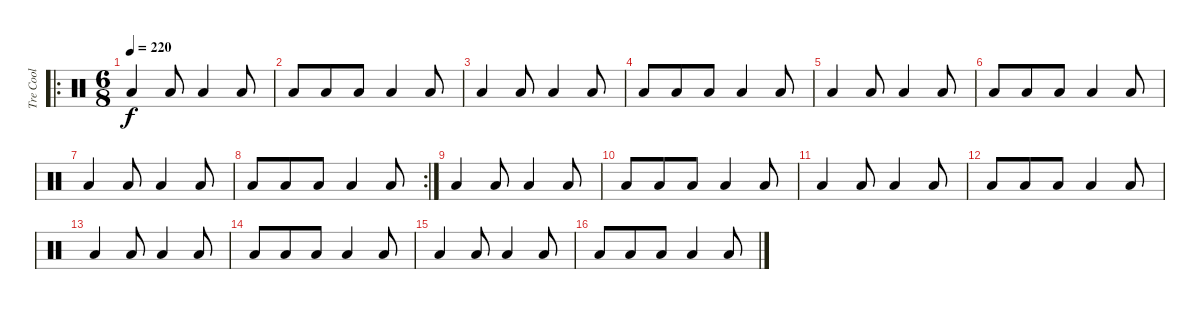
\track ("Tre Cool" "Tre Cool") {instrument percussion}
\staff {score}
\articulation defaults
\ro
\ts (6 8)
\tempo 220
\clef neutral
\ks c "Low Floor Tom (hit)".4{dy f} "Low Floor Tom (hit)".8 "Low Tom (hit)".4 "Low Tom (hit)".8
|
"Low Floor Tom (hit)".8 "Low Floor Tom (hit)".8 "Low Floor Tom (hit)".8 "Low Tom (hit)".4 "Low Tom (hit)".8 |
"Low Floor Tom (hit)".4 "Low Floor Tom (hit)".8 "Low Tom (hit)".4 "Low Tom (hit)".8 |
"Low Floor Tom (hit)".8 "Low Floor Tom (hit)".8 "Low Floor Tom (hit)".8 "Low Tom (hit)".4 "Low Tom (hit)".8 |
"Low Floor Tom (hit)".4 "Low Floor Tom (hit)".8 "Low Tom (hit)".4 "Low Tom (hit)".8 |
"Low Floor Tom (hit)".8 "Low Floor Tom (hit)".8 "Low Floor Tom (hit)".8 "Low Tom (hit)".4 "Low Tom (hit)".8 |
"Low Floor Tom (hit)".4 "Low Floor Tom (hit)".8 "Low Tom (hit)".4 "Low Tom (hit)".8 |
\rc 2 "Low Floor Tom (hit)".8 "Low Floor Tom (hit)".8 "Low Floor Tom (hit)".8 "Low Tom (hit)".4 "Low Tom (hit)".8
|
"Low Floor Tom (hit)".4 "Low Floor Tom (hit)".8 "Low Tom (hit)".4 "Low Tom (hit)".8 |
"Low Floor Tom (hit)".8 "Low Floor Tom (hit)".8 "Low Floor Tom (hit)".8 "Low Tom (hit)".4 "Low Tom (hit)".8 |
"Low Floor Tom (hit)".4 "Low Floor Tom (hit)".8 "Low Tom (hit)".4 "Low Tom (hit)".8 |
"Low Floor Tom (hit)".8 "Low Floor Tom (hit)".8 "Low Floor Tom (hit)".8 "Low Tom (hit)".4 "Low Tom (hit)".8 |
"Low Floor Tom (hit)".4 "Low Floor Tom (hit)".8 "Low Tom (hit)".4 "Low Tom (hit)".8 |
"Low Floor Tom (hit)".8 "Low Floor Tom (hit)".8 "Low Floor Tom (hit)".8 "Low Tom (hit)".4 "Low Tom (hit)".8 |
"Low Floor Tom (hit)".4 "Low Floor Tom (hit)".8 "Low Tom (hit)".4 "Low Tom (hit)".8 |
"Low Floor Tom (hit)".8 "Low Floor Tom (hit)".8 "Low Floor Tom (hit)".8 "Low Tom (hit)".4 "Low Tom (hit)".8
